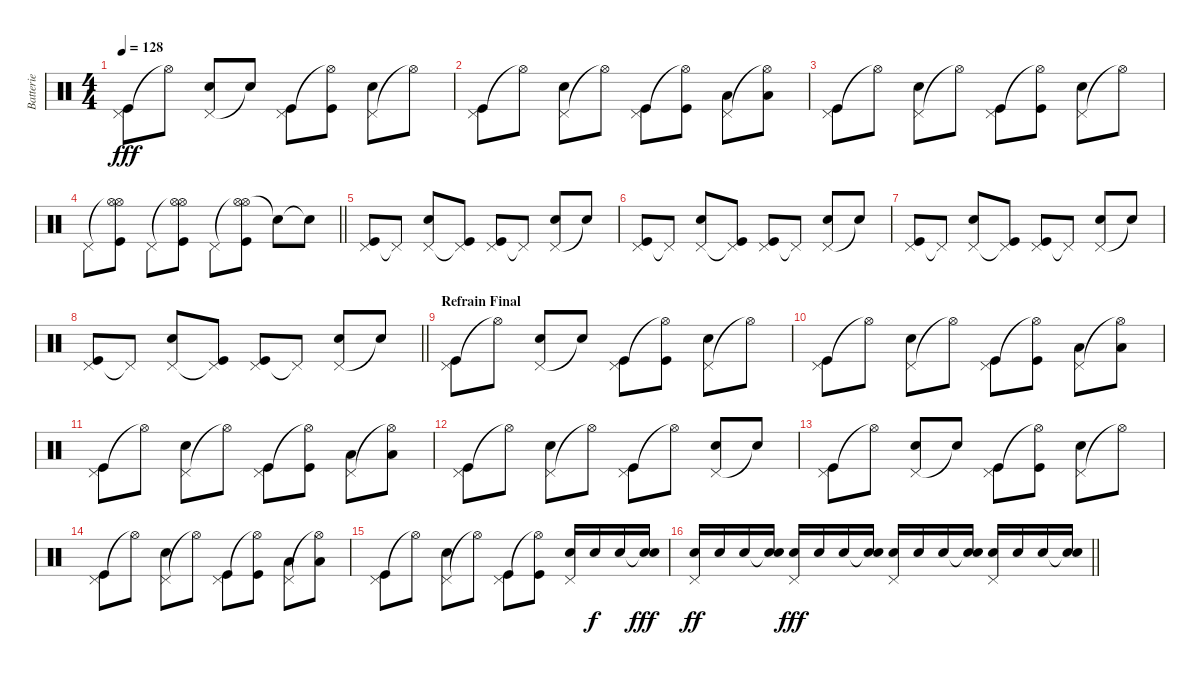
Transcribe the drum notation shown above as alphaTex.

\track ("Batterie" "Batterie") {instrument percussion}
\staff {score}
\articulation defaults
\ts (4 4)
\tempo 128
\clef neutral
\ks c
("Pedal Hi-Hat (hit)" "Kick (hit)").8{dy fff} "Hi-Hat (open)"{t}.8 ("Pedal Hi-Hat (hit)" "Electric Snare (hit)").8 "Snare (hit)"{t}.8 ("Pedal Hi-Hat (hit)" "Kick (hit)").8 ("Hi-Hat (open)"{t} "Kick (hit)").8 ("Pedal Hi-Hat (hit)" "Electric Snare (hit)").8 "Hi-Hat (open)"{t}.8 |
("Pedal Hi-Hat (hit)" "Kick (hit)").8 "Hi-Hat (open)"{t}.8 ("Pedal Hi-Hat (hit)" "Electric Snare (hit)").8 "Hi-Hat (open)"{t}.8 ("Pedal Hi-Hat (hit)" "Kick (hit)").8 ("Hi-Hat (open)"{t} "Kick (hit)").8 ("Pedal Hi-Hat (hit)" "Low Tom (hit)").8 ("Hi-Hat (open)"{t} "Low Tom (hit)").8 |
("Pedal Hi-Hat (hit)" "Kick (hit)").8 "Hi-Hat (open)"{t}.8 ("Pedal Hi-Hat (hit)" "Electric Snare (hit)").8 "Hi-Hat (open)"{t}.8 ("Pedal Hi-Hat (hit)" "Kick (hit)").8 ("Hi-Hat (open)"{t} "Kick (hit)").8 ("Pedal Hi-Hat (hit)" "Electric Snare (hit)").8 "Hi-Hat (open)"{t}.8 |
\barLineRight lightlight "Pedal Hi-Hat (hit)".8
("Hi-Hat (open)"{t} "Hi-Hat (open)" "Kick (hit)").8 "Pedal Hi-Hat (hit)".8 ("Hi-Hat (open)"{t} "Hi-Hat (open)" "Kick (hit)").8 "Pedal Hi-Hat (hit)".8 ("Hi-Hat (open)"{t} "Hi-Hat (open)" "Kick (hit)").8 "Electric Snare (hit)"{t}.8 "Snare (hit)"{t}.8 |
\section ("" "")
("Pedal Hi-Hat (hit)" "Kick (hit)").8 "Pedal Hi-Hat (hit)"{t}.8 ("Pedal Hi-Hat (hit)" "Electric Snare (hit)").8 ("Pedal Hi-Hat (hit)"{t} "Kick (hit)").8 ("Pedal Hi-Hat (hit)" "Kick (hit)").8 "Pedal Hi-Hat (hit)"{t}.8 ("Pedal Hi-Hat (hit)" "Electric Snare (hit)").8 "Snare (hit)"{t}.8 |
("Pedal Hi-Hat (hit)" "Kick (hit)").8 "Pedal Hi-Hat (hit)"{t}.8 ("Pedal Hi-Hat (hit)" "Electric Snare (hit)").8 ("Pedal Hi-Hat (hit)"{t} "Kick (hit)").8 ("Pedal Hi-Hat (hit)" "Kick (hit)").8 "Pedal Hi-Hat (hit)"{t}.8 ("Pedal Hi-Hat (hit)" "Electric Snare (hit)").8 "Snare (hit)"{t}.8 |
("Pedal Hi-Hat (hit)" "Kick (hit)").8 "Pedal Hi-Hat (hit)"{t}.8 ("Pedal Hi-Hat (hit)" "Electric Snare (hit)").8 ("Pedal Hi-Hat (hit)"{t} "Kick (hit)").8 ("Pedal Hi-Hat (hit)" "Kick (hit)").8 "Pedal Hi-Hat (hit)"{t}.8 ("Pedal Hi-Hat (hit)" "Electric Snare (hit)").8 "Snare (hit)"{t}.8 |
\barLineRight lightlight
("Pedal Hi-Hat (hit)" "Kick (hit)").8 "Pedal Hi-Hat (hit)"{t}.8 ("Pedal Hi-Hat (hit)" "Electric Snare (hit)").8 ("Pedal Hi-Hat (hit)"{t} "Kick (hit)").8 ("Pedal Hi-Hat (hit)" "Kick (hit)").8 "Pedal Hi-Hat (hit)"{t}.8 ("Pedal Hi-Hat (hit)" "Electric Snare (hit)").8 "Snare (hit)"{t}.8 |
\section ("" "Refrain Final")
("Pedal Hi-Hat (hit)" "Kick (hit)").8 "Hi-Hat (open)"{t}.8 ("Pedal Hi-Hat (hit)" "Electric Snare (hit)").8 "Snare (hit)"{t}.8 ("Pedal Hi-Hat (hit)" "Kick (hit)").8 ("Hi-Hat (open)"{t} "Kick (hit)").8 ("Pedal Hi-Hat (hit)" "Electric Snare (hit)").8 "Hi-Hat (open)"{t}.8 |
("Pedal Hi-Hat (hit)" "Kick (hit)").8 "Hi-Hat (open)"{t}.8 ("Pedal Hi-Hat (hit)" "Electric Snare (hit)").8 "Hi-Hat (open)"{t}.8 ("Pedal Hi-Hat (hit)" "Kick (hit)").8 ("Hi-Hat (open)"{t} "Kick (hit)").8 ("Pedal Hi-Hat (hit)" "Low Tom (hit)").8 ("Hi-Hat (open)"{t} "Low Tom (hit)").8 |
("Pedal Hi-Hat (hit)" "Kick (hit)").8 "Hi-Hat (open)"{t}.8 ("Pedal Hi-Hat (hit)" "Electric Snare (hit)").8 "Hi-Hat (open)"{t}.8 ("Pedal Hi-Hat (hit)" "Kick (hit)").8 ("Hi-Hat (open)"{t} "Kick (hit)").8 ("Pedal Hi-Hat (hit)" "Low Tom (hit)").8 ("Hi-Hat (open)"{t} "Low Tom (hit)").8 |
("Pedal Hi-Hat (hit)" "Kick (hit)").8 "Hi-Hat (open)"{t}.8 ("Pedal Hi-Hat (hit)" "Electric Snare (hit)").8 "Hi-Hat (open)"{t}.8 ("Pedal Hi-Hat (hit)" "Kick (hit)").8 "Hi-Hat (open)"{t}.8 ("Pedal Hi-Hat (hit)" "Electric Snare (hit)").8 "Snare (hit)"{t}.8 |
("Pedal Hi-Hat (hit)" "Kick (hit)").8 "Hi-Hat (open)"{t}.8 ("Pedal Hi-Hat (hit)" "Electric Snare (hit)").8 "Snare (hit)"{t}.8 ("Pedal Hi-Hat (hit)" "Kick (hit)").8 ("Hi-Hat (open)"{t} "Kick (hit)").8 ("Pedal Hi-Hat (hit)" "Electric Snare (hit)").8 "Hi-Hat (open)"{t}.8 |
("Pedal Hi-Hat (hit)" "Kick (hit)").8 "Hi-Hat (open)"{t}.8 ("Pedal Hi-Hat (hit)" "Electric Snare (hit)").8 "Hi-Hat (open)"{t}.8 ("Pedal Hi-Hat (hit)" "Kick (hit)").8 ("Hi-Hat (open)"{t} "Kick (hit)").8 ("Pedal Hi-Hat (hit)" "Low Tom (hit)").8 ("Hi-Hat (open)"{t} "Low Tom (hit)").8 |
("Pedal Hi-Hat (hit)" "Kick (hit)").8 "Hi-Hat (open)"{t}.8 ("Pedal Hi-Hat (hit)" "Electric Snare (hit)").8 "Hi-Hat (open)"{t}.8 ("Pedal Hi-Hat (hit)" "Kick (hit)").8 ("Hi-Hat (open)"{t} "Kick (hit)").8 ("Pedal Hi-Hat (hit)" "Electric Snare (hit)").16 "Electric Snare (hit)".16{dy f} "Electric Snare (hit)".16 ("Snare (hit)"{t} "Electric Snare (hit)").16{dy fff} |
\barLineRight lightlight
("Pedal Hi-Hat (hit)" "Electric Snare (hit)").16{dy ff} "Electric Snare (hit)".16 "Electric Snare (hit)".16 ("Snare (hit)"{t} "Electric Snare (hit)").16 ("Pedal Hi-Hat (hit)" "Electric Snare (hit)").16{dy fff} "Electric Snare (hit)".16 "Electric Snare (hit)".16 ("Snare (hit)"{t} "Electric Snare (hit)").16 ("Pedal Hi-Hat (hit)" "Electric Snare (hit)").16 "Electric Snare (hit)".16 "Electric Snare (hit)".16 ("Snare (hit)"{t} "Electric Snare (hit)").16 ("Pedal Hi-Hat (hit)" "Electric Snare (hit)").16 "Electric Snare (hit)".16 "Electric Snare (hit)".16 ("Snare (hit)"{t} "Electric Snare (hit)").16
